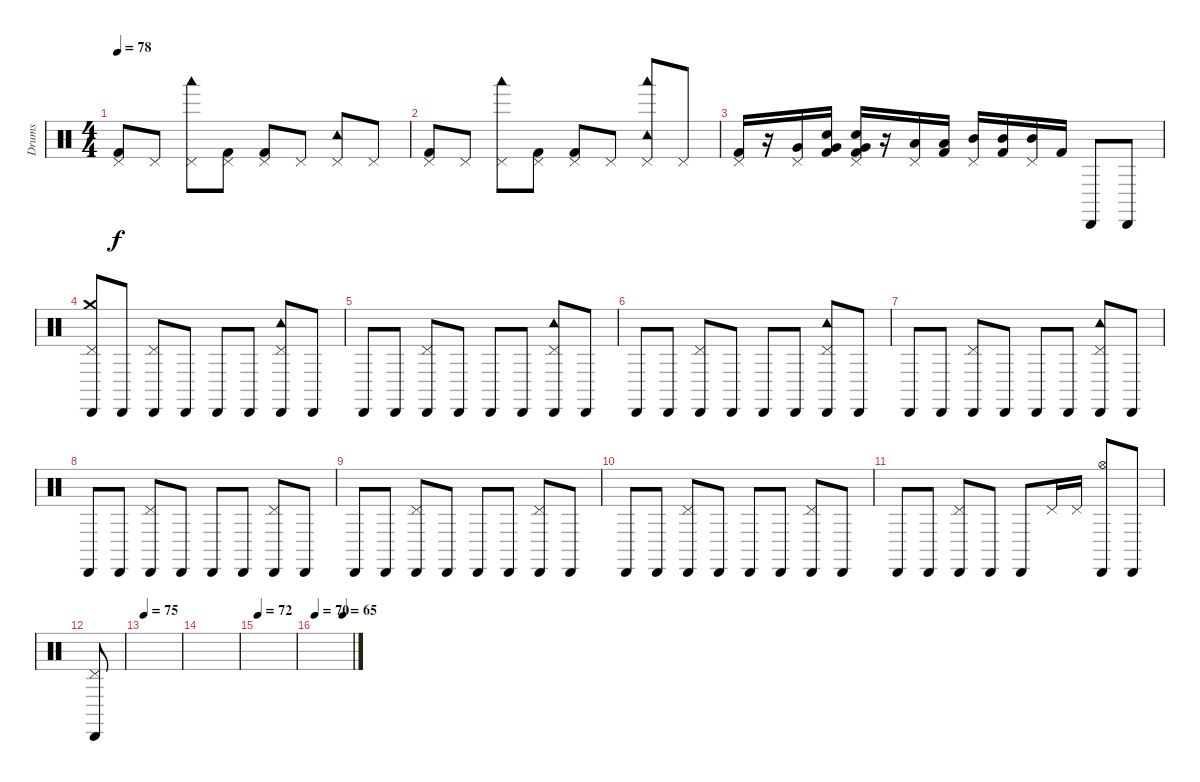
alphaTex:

\track ("Drums" "Drums") {instrument percussion}
\staff {score}
\articulation defaults
\ts (4 4)
\tempo 78
\clef neutral
\ks c
("Pedal Hi-Hat (hit)" "Kick (hit) 2").8{dy f} "Pedal Hi-Hat (hit)".8 ("Pedal Hi-Hat (hit)" "Woodblock low (hit)").8 ("Pedal Hi-Hat (hit)" "Kick (hit) 2").8 ("Pedal Hi-Hat (hit)" "Kick (hit) 2").8 "Pedal Hi-Hat (hit)".8 ("Pedal Hi-Hat (hit)" "Tambourine (hit)").8 "Pedal Hi-Hat (hit)".8 |
("Pedal Hi-Hat (hit)" "Kick (hit) 2").8 "Pedal Hi-Hat (hit)".8 ("Pedal Hi-Hat (hit)" "Woodblock low (hit)").8 ("Pedal Hi-Hat (hit)" "Kick (hit) 2").8 ("Pedal Hi-Hat (hit)" "Kick (hit) 2").8 "Pedal Hi-Hat (hit)".8 ("Pedal Hi-Hat (hit)" "Woodblock low (hit)" "Tambourine (hit)").8 "Pedal Hi-Hat (hit)".8 |
("Pedal Hi-Hat (hit)" "Kick (hit) 2").16{volume 6} r.16 ("Pedal Hi-Hat (hit)" "Very Low Tom (hit)").16 ("Snare (hit) 2" "Very Low Tom (hit)" "Kick (hit) 2").16 ("Pedal Hi-Hat (hit)" "Snare (hit) 2" "Very Low Tom (hit)" "Kick (hit) 2").16 r.16 ("Pedal Hi-Hat (hit)" "Low Tom (hit)").16 ("Low Tom (hit)" "Kick (hit) 2").16 ("Pedal Hi-Hat (hit)" "Mid Tom (hit)").16 ("Mid Tom (hit)" "Kick (hit) 2").16 ("Pedal Hi-Hat (hit)" "Mid Tom (hit)").16 "Kick (hit) 2".16 "Cabasa (hit)".8 "Cabasa (hit)".8 |
("Cabasa (hit)" "Pedal Hi-Hat (hit)" "Crash medium (hit)").8{volume 5} "Cabasa (hit)".8{volume 4} ("Cabasa (hit)" "Pedal Hi-Hat (hit)").8{volume 6} "Cabasa (hit)".8{volume 4} "Cabasa (hit)".8 "Cabasa (hit)".8 ("Cabasa (hit)" "Pedal Hi-Hat (hit)" "Tambourine (hit)").8{volume 6} "Cabasa (hit)".8{volume 4} |
"Cabasa (hit)".8 "Cabasa (hit)".8 ("Cabasa (hit)" "Pedal Hi-Hat (hit)").8{volume 6} "Cabasa (hit)".8{volume 4} "Cabasa (hit)".8 "Cabasa (hit)".8 ("Cabasa (hit)" "Pedal Hi-Hat (hit)" "Tambourine (hit)").8{volume 6} "Cabasa (hit)".8{volume 4} |
"Cabasa (hit)".8 "Cabasa (hit)".8 ("Cabasa (hit)" "Pedal Hi-Hat (hit)").8{volume 6} "Cabasa (hit)".8{volume 4} "Cabasa (hit)".8 "Cabasa (hit)".8 ("Cabasa (hit)" "Pedal Hi-Hat (hit)" "Tambourine (hit)").8{volume 6} "Cabasa (hit)".8{volume 4} |
"Cabasa (hit)".8 "Cabasa (hit)".8 ("Cabasa (hit)" "Pedal Hi-Hat (hit)").8{volume 6} "Cabasa (hit)".8{volume 4} "Cabasa (hit)".8 "Cabasa (hit)".8 ("Cabasa (hit)" "Pedal Hi-Hat (hit)" "Tambourine (hit)").8{volume 6} "Cabasa (hit)".8{volume 4} |
"Cabasa (hit)".8 "Cabasa (hit)".8 ("Cabasa (hit)" "Pedal Hi-Hat (hit)").8{volume 6} "Cabasa (hit)".8{volume 4} "Cabasa (hit)".8 "Cabasa (hit)".8 ("Cabasa (hit)" "Pedal Hi-Hat (hit)").8{volume 6} "Cabasa (hit)".8{volume 4} |
"Cabasa (hit)".8 "Cabasa (hit)".8 ("Cabasa (hit)" "Pedal Hi-Hat (hit)").8{volume 6} "Cabasa (hit)".8{volume 4} "Cabasa (hit)".8 "Cabasa (hit)".8 ("Cabasa (hit)" "Pedal Hi-Hat (hit)").8{volume 6} "Cabasa (hit)".8{volume 4} |
"Cabasa (hit)".8 "Cabasa (hit)".8 ("Cabasa (hit)" "Pedal Hi-Hat (hit)").8{volume 6} "Cabasa (hit)".8{volume 4} "Cabasa (hit)".8 "Cabasa (hit)".8 ("Cabasa (hit)" "Pedal Hi-Hat (hit)").8{volume 6} "Cabasa (hit)".8{volume 4} |
"Cabasa (hit)".8 "Cabasa (hit)".8 ("Cabasa (hit)" "Pedal Hi-Hat (hit)").8{volume 6} "Cabasa (hit)".8{volume 4} "Cabasa (hit)".8 "Pedal Hi-Hat (hit)".16 "Pedal Hi-Hat (hit)".16 ("Cabasa (hit)" "Hi-Hat (open)").8{volume 6} "Cabasa (hit)".8{volume 4} |
("Cabasa (hit)" "Pedal Hi-Hat (hit)").8 |
\tempo 75
|
|
\tempo 72
|
\tempo 70
\tempo (65 0.75)
